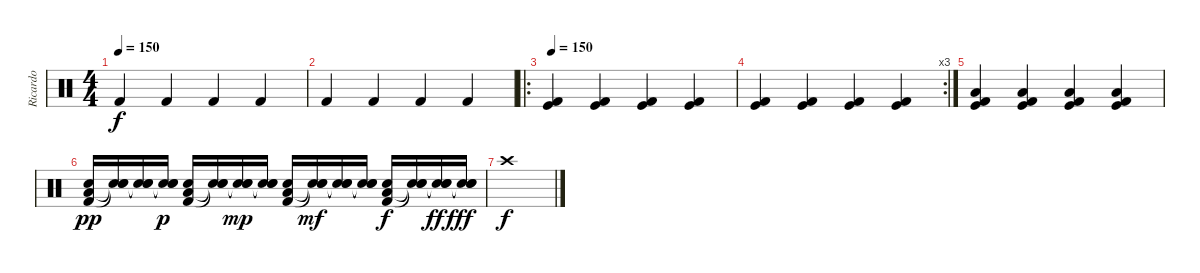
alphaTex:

\track ("Ricardo" "Ricardo") {instrument percussion}
\staff {score}
\articulation defaults
\ts (4 4)
\tempo 150
\clef neutral
\ks c "Kick (hit) 2".4{dy f} "Kick (hit) 2".4 "Kick (hit) 2".4 "Kick (hit) 2".4
|
"Kick (hit) 2".4 "Kick (hit) 2".4 "Kick (hit) 2".4 "Kick (hit) 2".4 |
\ro
\tempo 150
("Kick (hit) 2" "Kick (hit)").4 ("Kick (hit) 2" "Kick (hit)").4 ("Kick (hit) 2" "Kick (hit)").4 ("Kick (hit) 2" "Kick (hit)").4 |
\rc 3
("Kick (hit) 2" "Kick (hit)").4 ("Kick (hit) 2" "Kick (hit)").4 ("Kick (hit) 2" "Kick (hit)").4 ("Kick (hit) 2" "Kick (hit)").4 |
("Kick (hit) 2" "Low Floor Tom (hit)" "Kick (hit)").4 ("Kick (hit) 2" "Low Floor Tom (hit)" "Kick (hit)").4 ("Kick (hit) 2" "Low Floor Tom (hit)" "Kick (hit)").4 ("Kick (hit) 2" "Low Floor Tom (hit)" "Kick (hit)").4 |
("Kick (hit) 2" "Snare (hit) 2" "Low Floor Tom (hit)").16{dy pp} ("Snare (hit)"{t} "Snare (hit) 2" "Snare (hit)"{t}).16 ("Snare (hit)"{t} "Snare (hit) 2" "Snare (hit)"{t}).16 ("Snare (hit)"{t} "Snare (hit) 2" "Snare (hit)"{t}).16{dy p} ("Kick (hit) 2" "Snare (hit) 2" "Low Floor Tom (hit)").16 ("Snare (hit)"{t} "Snare (hit) 2" "Snare (hit)"{t}).16 ("Snare (hit)"{t} "Snare (hit) 2" "Snare (hit)"{t}).16{dy mp} ("Snare (hit)"{t} "Snare (hit) 2" "Snare (hit)"{t}).16 ("Kick (hit) 2" "Snare (hit) 2" "Low Floor Tom (hit)").16 ("Snare (hit)"{t} "Snare (hit) 2" "Snare (hit)"{t}).16{dy mf} ("Snare (hit)"{t} "Snare (hit) 2" "Snare (hit)"{t}).16 ("Snare (hit)"{t} "Snare (hit) 2" "Snare (hit)"{t}).16 ("Kick (hit) 2" "Snare (hit) 2" "Low Floor Tom (hit)").16{dy f} ("Snare (hit)"{t} "Snare (hit) 2" "Snare (hit)"{t}).16 ("Snare (hit)"{t} "Snare (hit) 2" "Snare (hit)"{t}).16{dy ff} ("Snare (hit)"{t} "Snare (hit) 2" "Snare (hit)"{t}).16{dy fff} |
"Crash high (hit)".1{dy f}
